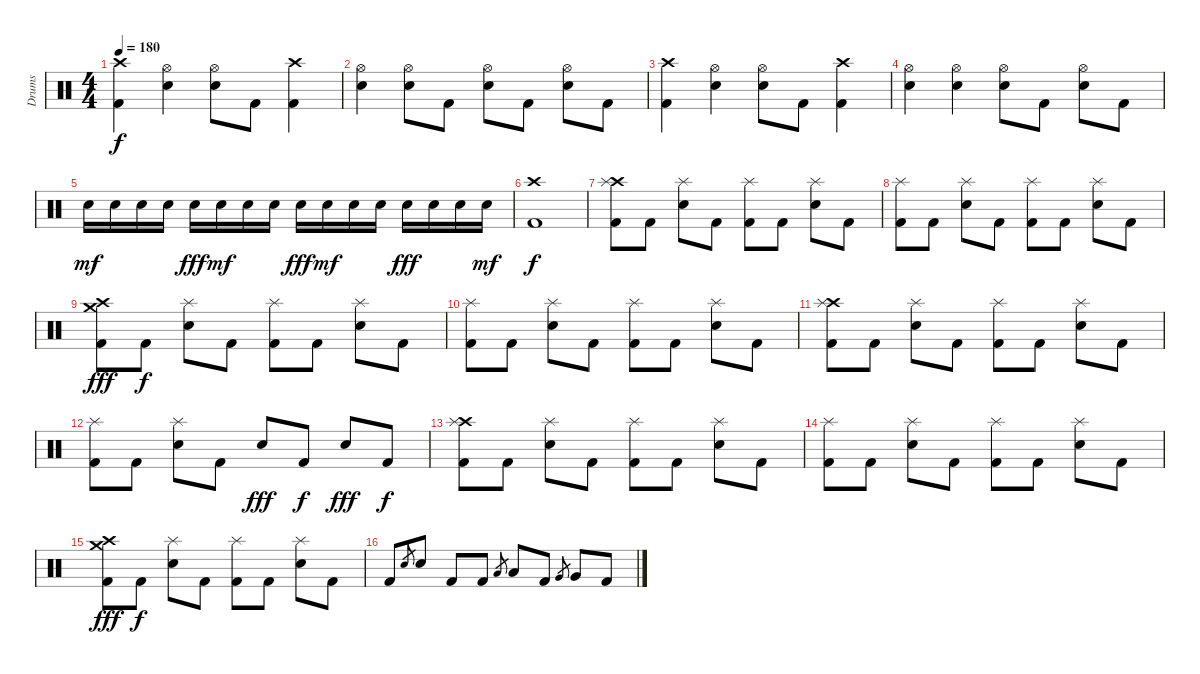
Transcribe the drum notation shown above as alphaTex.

\track ("Drums" "Drums") {instrument percussion}
\staff {score}
\articulation defaults
\ts (4 4)
\tempo 180
\clef neutral
\ks c
("Crash high (hit)" "Kick (hit) 2").4{dy f} ("Hi-Hat (open)" "Electric Snare (hit)").4 ("Hi-Hat (open)" "Electric Snare (hit)").8 "Kick (hit) 2".8 ("Crash high (hit)" "Kick (hit) 2").4 |
("Hi-Hat (open)" "Electric Snare (hit)").4 ("Hi-Hat (open)" "Electric Snare (hit)").8 "Kick (hit) 2".8 ("Hi-Hat (open)" "Electric Snare (hit)").8 "Kick (hit) 2".8 ("Hi-Hat (open)" "Electric Snare (hit)").8 "Kick (hit) 2".8 |
("Crash high (hit)" "Kick (hit) 2").4 ("Hi-Hat (open)" "Electric Snare (hit)").4 ("Hi-Hat (open)" "Electric Snare (hit)").8 "Kick (hit) 2".8 ("Crash high (hit)" "Kick (hit) 2").4 |
("Hi-Hat (open)" "Electric Snare (hit)").4 ("Hi-Hat (open)" "Electric Snare (hit)").4 ("Hi-Hat (open)" "Electric Snare (hit)").8 "Kick (hit) 2".8 ("Hi-Hat (open)" "Electric Snare (hit)").8 "Kick (hit) 2".8 |
"Electric Snare (hit)".16{dy mf} "Electric Snare (hit)".16 "Electric Snare (hit)".16 "Electric Snare (hit)".16 "Electric Snare (hit)".16{dy fff} "Electric Snare (hit)".16{dy mf} "Electric Snare (hit)".16 "Electric Snare (hit)".16 "Electric Snare (hit)".16{dy fff} "Electric Snare (hit)".16{dy mf} "Electric Snare (hit)".16 "Electric Snare (hit)".16 "Electric Snare (hit)".16{dy fff} "Electric Snare (hit)".16 "Electric Snare (hit)".16 "Electric Snare (hit)".16{dy mf} |
("Crash high (hit)" "Kick (hit) 2").1{dy f} |
("Crash high (hit)" "Splash (hit)" "Kick (hit) 2").8 "Kick (hit) 2".8 ("Splash (hit)" "Electric Snare (hit)").8 "Kick (hit) 2".8 ("Splash (hit)" "Kick (hit) 2").8 "Kick (hit) 2".8 ("Splash (hit)" "Electric Snare (hit)").8 "Kick (hit) 2".8 |
("Splash (hit)" "Kick (hit) 2").8 "Kick (hit) 2".8 ("Splash (hit)" "Electric Snare (hit)").8 "Kick (hit) 2".8 ("Splash (hit)" "Kick (hit) 2").8 "Kick (hit) 2".8 ("Splash (hit)" "Electric Snare (hit)").8 "Kick (hit) 2".8 |
("Crash high (hit)" "Crash medium (hit)" "Kick (hit) 2").8{dy fff} "Kick (hit) 2".8{dy f} ("Splash (hit)" "Electric Snare (hit)").8 "Kick (hit) 2".8 ("Splash (hit)" "Kick (hit) 2").8 "Kick (hit) 2".8 ("Splash (hit)" "Electric Snare (hit)").8 "Kick (hit) 2".8 |
("Splash (hit)" "Kick (hit) 2").8 "Kick (hit) 2".8 ("Splash (hit)" "Electric Snare (hit)").8 "Kick (hit) 2".8 ("Splash (hit)" "Kick (hit) 2").8 "Kick (hit) 2".8 ("Splash (hit)" "Electric Snare (hit)").8 "Kick (hit) 2".8 |
("Crash high (hit)" "Splash (hit)" "Kick (hit) 2").8 "Kick (hit) 2".8 ("Splash (hit)" "Electric Snare (hit)").8 "Kick (hit) 2".8 ("Splash (hit)" "Kick (hit) 2").8 "Kick (hit) 2".8 ("Splash (hit)" "Electric Snare (hit)").8 "Kick (hit) 2".8 |
("Splash (hit)" "Kick (hit) 2").8 "Kick (hit) 2".8 ("Splash (hit)" "Electric Snare (hit)").8 "Kick (hit) 2".8 "Electric Snare (hit)".8{dy fff} "Kick (hit) 2".8{dy f} "Electric Snare (hit)".8{dy fff} "Kick (hit) 2".8{dy f} |
("Crash high (hit)" "Splash (hit)" "Kick (hit) 2").8 "Kick (hit) 2".8 ("Splash (hit)" "Electric Snare (hit)").8 "Kick (hit) 2".8 ("Splash (hit)" "Kick (hit) 2").8 "Kick (hit) 2".8 ("Splash (hit)" "Electric Snare (hit)").8 "Kick (hit) 2".8 |
("Splash (hit)" "Kick (hit) 2").8 "Kick (hit) 2".8 ("Splash (hit)" "Electric Snare (hit)").8 "Kick (hit) 2".8 ("Splash (hit)" "Kick (hit) 2").8 "Kick (hit) 2".8 ("Splash (hit)" "Electric Snare (hit)").8 "Kick (hit) 2".8 |
("Crash high (hit)" "Crash medium (hit)" "Kick (hit) 2").8{dy fff} "Kick (hit) 2".8{dy f} ("Splash (hit)" "Electric Snare (hit)").8 "Kick (hit) 2".8 ("Splash (hit)" "Kick (hit) 2").8 "Kick (hit) 2".8 ("Splash (hit)" "Electric Snare (hit)").8 "Kick (hit) 2".8 |
"Kick (hit) 2".8 "Electric Snare (hit)".8{gr} "Electric Snare (hit)".8 "Kick (hit) 2".8 "Kick (hit) 2".8 "Low Tom (hit)".8{gr} "Low Tom (hit)".8 "Kick (hit) 2".8 "Very Low Tom (hit)".8{gr} "Very Low Tom (hit)".8 "Kick (hit) 2".8
